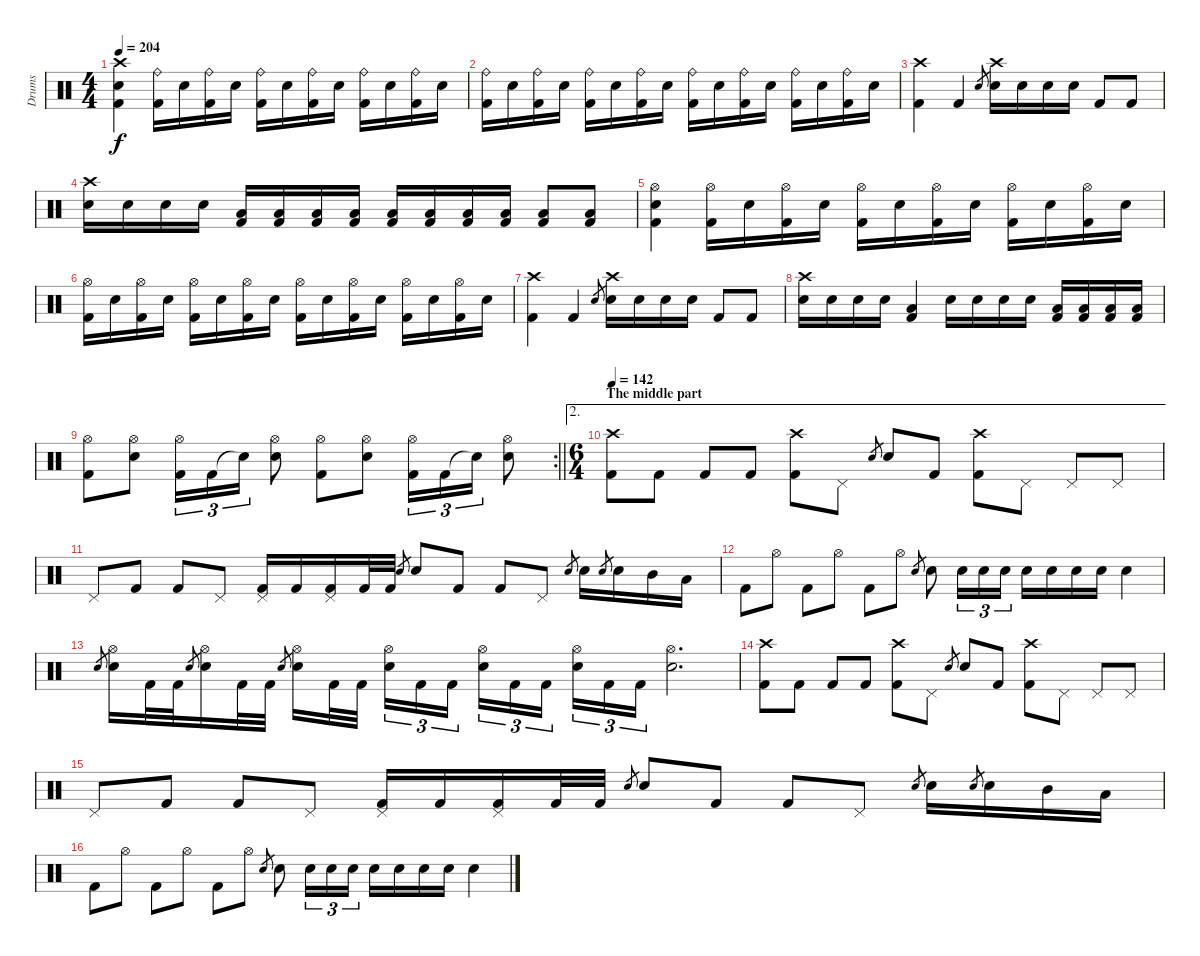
\track ("Drums" "Drums") {instrument percussion}
\staff {score}
\articulation defaults
\ts (4 4)
\tempo 204
\clef neutral
\ks c
("Crash high (hit)" "Snare (hit) 2" "Kick (hit) 2").4{dy f} ("Ride (bell)" "Kick (hit) 2").16 "Snare (hit) 2".16 ("Ride (bell)" "Kick (hit) 2").16 "Snare (hit) 2".16 ("Ride (bell)" "Kick (hit) 2").16 "Snare (hit) 2".16 ("Ride (bell)" "Kick (hit) 2").16 "Snare (hit) 2".16 ("Ride (bell)" "Kick (hit) 2").16 "Snare (hit) 2".16 ("Ride (bell)" "Kick (hit) 2").16 "Snare (hit) 2".16 |
("Ride (bell)" "Kick (hit) 2").16 "Snare (hit) 2".16 ("Ride (bell)" "Kick (hit) 2").16 "Snare (hit) 2".16 ("Ride (bell)" "Kick (hit) 2").16 "Snare (hit) 2".16 ("Ride (bell)" "Kick (hit) 2").16 "Snare (hit) 2".16 ("Ride (bell)" "Kick (hit) 2").16 "Snare (hit) 2".16 ("Ride (bell)" "Kick (hit) 2").16 "Snare (hit) 2".16 ("Ride (bell)" "Kick (hit) 2").16 "Snare (hit) 2".16 ("Ride (bell)" "Kick (hit) 2").16 "Snare (hit) 2".16 |
("Crash high (hit)" "Kick (hit) 2").4 "Kick (hit) 2".4 "Snare (hit) 2".8{gr} ("Crash high (hit)" "Snare (hit) 2").16 "Snare (hit) 2".16 "Snare (hit) 2".16 "Snare (hit) 2".16 "Kick (hit) 2".8 "Kick (hit) 2".8 |
("Crash high (hit)" "Snare (hit) 2").16 "Snare (hit) 2".16 "Snare (hit) 2".16 "Snare (hit) 2".16 ("Low Tom (hit)" "Kick (hit) 2").16 ("Low Floor Tom (hit)" "Kick (hit) 2").16 ("Low Floor Tom (hit)" "Kick (hit) 2").16 ("Low Floor Tom (hit)" "Kick (hit) 2").16 ("Low Tom (hit)" "Kick (hit) 2").16 ("Low Floor Tom (hit)" "Kick (hit) 2").16 ("Low Floor Tom (hit)" "Kick (hit) 2").16 ("Low Floor Tom (hit)" "Kick (hit) 2").16 ("Low Floor Tom (hit)" "Kick (hit) 2").8 ("Low Floor Tom (hit)" "Kick (hit) 2").8 |
("Hi-Hat (open)" "Snare (hit) 2" "Kick (hit) 2").4 ("Hi-Hat (open)" "Kick (hit) 2").16 "Snare (hit) 2".16 ("Hi-Hat (open)" "Kick (hit) 2").16 "Snare (hit) 2".16 ("Hi-Hat (open)" "Kick (hit) 2").16 "Snare (hit) 2".16 ("Hi-Hat (open)" "Kick (hit) 2").16 "Snare (hit) 2".16 ("Hi-Hat (open)" "Kick (hit) 2").16 "Snare (hit) 2".16 ("Hi-Hat (open)" "Kick (hit) 2").16 "Snare (hit) 2".16 |
("Hi-Hat (open)" "Kick (hit) 2").16 "Snare (hit) 2".16 ("Hi-Hat (open)" "Kick (hit) 2").16 "Snare (hit) 2".16 ("Hi-Hat (open)" "Kick (hit) 2").16 "Snare (hit) 2".16 ("Hi-Hat (open)" "Kick (hit) 2").16 "Snare (hit) 2".16 ("Hi-Hat (open)" "Kick (hit) 2").16 "Snare (hit) 2".16 ("Hi-Hat (open)" "Kick (hit) 2").16 "Snare (hit) 2".16 ("Hi-Hat (open)" "Kick (hit) 2").16 "Snare (hit) 2".16 ("Hi-Hat (open)" "Kick (hit) 2").16 "Snare (hit) 2".16 |
("Crash high (hit)" "Kick (hit) 2").4 "Kick (hit) 2".4 "Snare (hit) 2".8{gr} ("Crash high (hit)" "Snare (hit) 2").16 "Snare (hit) 2".16 "Snare (hit) 2".16 "Snare (hit) 2".16 "Kick (hit) 2".8 "Kick (hit) 2".8 |
("Crash high (hit)" "Snare (hit) 2").16 "Snare (hit) 2".16 "Snare (hit) 2".16 "Snare (hit) 2".16 ("Low Floor Tom (hit)" "Kick (hit) 2").4 "Snare (hit) 2".16 "Snare (hit) 2".16 "Snare (hit) 2".16 "Snare (hit) 2".16 ("Low Floor Tom (hit)" "Kick (hit) 2").16 ("Low Floor Tom (hit)" "Kick (hit) 2").16 ("Low Floor Tom (hit)" "Kick (hit) 2").16 ("Low Floor Tom (hit)" "Kick (hit) 2").16 |
\rc 2
\barLineRight lightlight
("Hi-Hat (open)" "Kick (hit) 2").8 ("Snare (hit) 2" "Hi-Hat (open)").8 ("Hi-Hat (open)" "Kick (hit) 2").16{tu (3 2)} "Kick (hit) 2".16{tu (3 2)} "Snare (hit)"{t}.16{tu (3 2)} ("Hi-Hat (open)" "Snare (hit) 2").8 ("Kick (hit) 2" "Hi-Hat (open)").8 ("Hi-Hat (open)" "Snare (hit) 2").8 ("Hi-Hat (open)" "Kick (hit) 2").16{tu (3 2)} "Kick (hit) 2".16{tu (3 2)} "Snare (hit) 2"{t}.16{tu (3 2)} ("Snare (hit) 2" "Hi-Hat (open)").8 |
\ae 2
\ts (6 4)
\section ("" "The middle part")
\tempo 142
("Crash high (hit)" "Kick (hit) 2").8 "Kick (hit) 2".8 "Kick (hit) 2".8 "Kick (hit) 2".8 ("Crash high (hit)" "Kick (hit) 2").8 "Pedal Hi-Hat (hit)".8 "Snare (hit) 2".8{gr} "Snare (hit) 2".8 "Kick (hit) 2".8 ("Crash high (hit)" "Kick (hit) 2").8 "Pedal Hi-Hat (hit)".8 "Pedal Hi-Hat (hit)".8 "Pedal Hi-Hat (hit)".8 |
"Pedal Hi-Hat (hit)".8 "Kick (hit) 2".8 "Kick (hit) 2".8 "Pedal Hi-Hat (hit)".8 ("Pedal Hi-Hat (hit)" "Kick (hit) 2").16 "Kick (hit) 2".16 ("Pedal Hi-Hat (hit)" "Kick (hit) 2").16 "Kick (hit) 2".32 "Kick (hit) 2".32 "Snare (hit) 2".8{gr} "Snare (hit) 2".8 "Kick (hit) 2".8 "Kick (hit) 2".8 "Pedal Hi-Hat (hit)".8 "Snare (hit) 2".8{gr} "Snare (hit) 2".16 "Snare (hit) 2".8{gr} "Snare (hit) 2".16 "Mid Tom (hit)".16 "Low Tom (hit)".16 |
"Kick (hit) 2".8 "Hi-Hat (open)".8 "Kick (hit) 2".8 "Hi-Hat (open)".8 "Kick (hit) 2".8 "Hi-Hat (open)".8 "Snare (hit) 2".8{gr} "Snare (hit) 2".8 "Snare (hit) 2".16{tu (3 2)} "Snare (hit) 2".16{tu (3 2)} "Snare (hit) 2".16{tu (3 2) beam splitsecondary} "Snare (hit) 2".16 "Snare (hit) 2".16 "Snare (hit) 2".16 "Snare (hit) 2".16 "Snare (hit) 2".4 |
"Snare (hit) 2".8{gr} ("Hi-Hat (open)" "Snare (hit) 2").16 "Kick (hit) 2".32 "Kick (hit) 2".32 "Snare (hit) 2".8{gr} ("Hi-Hat (open)" "Snare (hit) 2").16 "Kick (hit) 2".32 "Kick (hit) 2".32 "Snare (hit) 2".8{gr} ("Hi-Hat (open)" "Snare (hit) 2").16 "Kick (hit) 2".32 "Kick (hit) 2".32{beam splitsecondary} ("Hi-Hat (open)" "Snare (hit) 2").16{tu (3 2)} "Kick (hit) 2".16{tu (3 2)} "Kick (hit) 2".16{tu (3 2) beam splitsecondary} ("Hi-Hat (open)" "Snare (hit) 2").16{tu (3 2)} "Kick (hit) 2".16{tu (3 2)} "Kick (hit) 2".16{tu (3 2) beam splitsecondary} ("Hi-Hat (open)" "Snare (hit) 2").16{tu (3 2)} "Kick (hit) 2".16{tu (3 2)} "Kick (hit) 2".16{tu (3 2)} ("Hi-Hat (open)" "Snare (hit) 2").2{d} |
("Crash high (hit)" "Kick (hit) 2").8 "Kick (hit) 2".8 "Kick (hit) 2".8 "Kick (hit) 2".8 ("Crash high (hit)" "Kick (hit) 2").8 "Pedal Hi-Hat (hit)".8 "Snare (hit) 2".8{gr} "Snare (hit) 2".8 "Kick (hit) 2".8 ("Crash high (hit)" "Kick (hit) 2").8 "Pedal Hi-Hat (hit)".8 "Pedal Hi-Hat (hit)".8 "Pedal Hi-Hat (hit)".8 |
"Pedal Hi-Hat (hit)".8 "Kick (hit) 2".8 "Kick (hit) 2".8 "Pedal Hi-Hat (hit)".8 ("Pedal Hi-Hat (hit)" "Kick (hit) 2").16 "Kick (hit) 2".16 ("Pedal Hi-Hat (hit)" "Kick (hit) 2").16 "Kick (hit) 2".32 "Kick (hit) 2".32 "Snare (hit) 2".8{gr} "Snare (hit) 2".8 "Kick (hit) 2".8 "Kick (hit) 2".8 "Pedal Hi-Hat (hit)".8 "Snare (hit) 2".8{gr} "Snare (hit) 2".16 "Snare (hit) 2".8{gr} "Snare (hit) 2".16 "Mid Tom (hit)".16 "Low Tom (hit)".16 |
"Kick (hit) 2".8 "Hi-Hat (open)".8 "Kick (hit) 2".8 "Hi-Hat (open)".8 "Kick (hit) 2".8 "Hi-Hat (open)".8 "Snare (hit) 2".8{gr} "Snare (hit) 2".8 "Snare (hit) 2".16{tu (3 2)} "Snare (hit) 2".16{tu (3 2)} "Snare (hit) 2".16{tu (3 2) beam splitsecondary} "Snare (hit) 2".16 "Snare (hit) 2".16 "Snare (hit) 2".16 "Snare (hit) 2".16 "Snare (hit) 2".4
